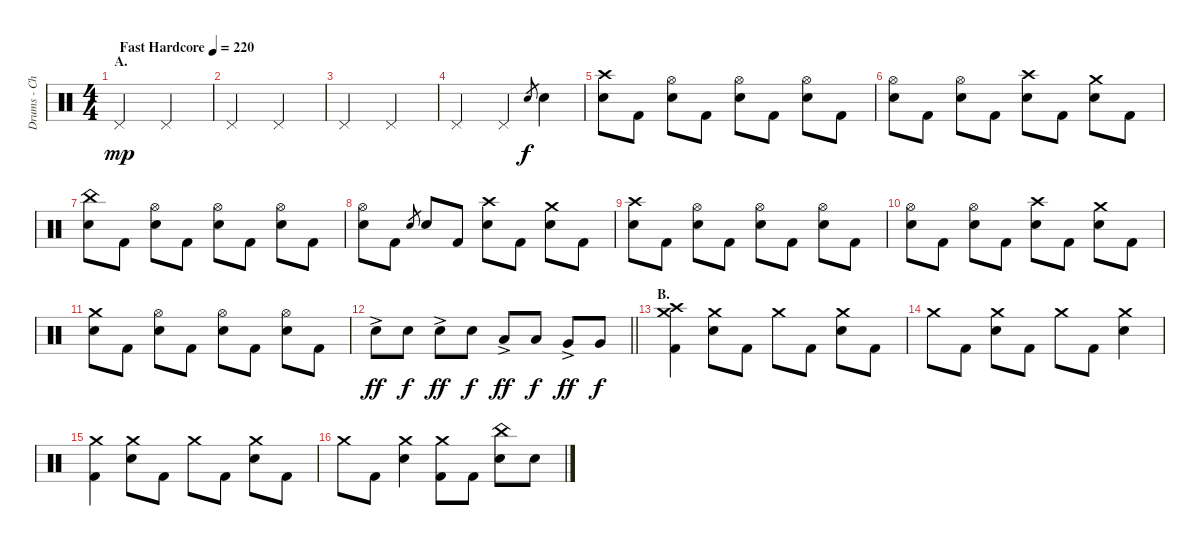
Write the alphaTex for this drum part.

\track ("Drums - Christopher Hornbrook" "Drums - Ch") {instrument percussion}
\staff {score}
\articulation defaults
\ts (4 4)
\section ("" "A.")
\tempo (220 "Fast Hardcore")
\clef neutral
\ks c "Pedal Hi-Hat (hit)".2{dy mp} "Pedal Hi-Hat (hit)".2
|
"Pedal Hi-Hat (hit)".2 "Pedal Hi-Hat (hit)".2 |
"Pedal Hi-Hat (hit)".2 "Pedal Hi-Hat (hit)".2 |
"Pedal Hi-Hat (hit)".2 "Pedal Hi-Hat (hit)".4 "Electric Snare (hit)".8{gr dy f} "Electric Snare (hit)".4 |
("Crash high (hit)" "Electric Snare (hit)").8 "Kick (hit) 2".8 ("Hi-Hat (open)" "Electric Snare (hit)").8 "Kick (hit) 2".8 ("Hi-Hat (open)" "Electric Snare (hit)").8 "Kick (hit) 2".8 ("Hi-Hat (open)" "Electric Snare (hit)").8 "Kick (hit) 2".8 |
("Hi-Hat (open)" "Electric Snare (hit)").8 "Kick (hit) 2".8 ("Hi-Hat (open)" "Electric Snare (hit)").8 "Kick (hit) 2".8 ("Crash high (hit)" "Electric Snare (hit)").8 "Kick (hit) 2".8 ("Crash medium (hit)" "Electric Snare (hit)").8 "Kick (hit) 2".8 |
("China (hit)" "Electric Snare (hit)").8 "Kick (hit) 2".8 ("Hi-Hat (open)" "Electric Snare (hit)").8 "Kick (hit) 2".8 ("Hi-Hat (open)" "Electric Snare (hit)").8 "Kick (hit) 2".8 ("Hi-Hat (open)" "Electric Snare (hit)").8 "Kick (hit) 2".8 |
("Hi-Hat (open)" "Electric Snare (hit)").8 "Kick (hit) 2".8 "Electric Snare (hit)".8{gr} "Electric Snare (hit)".8 "Kick (hit) 2".8 ("Crash high (hit)" "Electric Snare (hit)").8 "Kick (hit) 2".8 ("Crash medium (hit)" "Electric Snare (hit)").8 "Kick (hit) 2".8 |
("Crash high (hit)" "Electric Snare (hit)").8 "Kick (hit) 2".8 ("Hi-Hat (open)" "Electric Snare (hit)").8 "Kick (hit) 2".8 ("Hi-Hat (open)" "Electric Snare (hit)").8 "Kick (hit) 2".8 ("Hi-Hat (open)" "Electric Snare (hit)").8 "Kick (hit) 2".8 |
("Hi-Hat (open)" "Electric Snare (hit)").8 "Kick (hit) 2".8 ("Hi-Hat (open)" "Electric Snare (hit)").8 "Kick (hit) 2".8 ("Crash high (hit)" "Electric Snare (hit)").8 "Kick (hit) 2".8 ("Crash medium (hit)" "Electric Snare (hit)").8 "Kick (hit) 2".8 |
("Crash medium (hit)" "Electric Snare (hit)").8 "Kick (hit) 2".8 ("Hi-Hat (open)" "Electric Snare (hit)").8 "Kick (hit) 2".8 ("Hi-Hat (open)" "Electric Snare (hit)").8 "Kick (hit) 2".8 ("Hi-Hat (open)" "Electric Snare (hit)").8 "Kick (hit) 2".8 |
\barLineRight lightlight "Electric Snare (hit)"{ac}.8{dy ff} "Electric Snare (hit)".8{dy f} "Electric Snare (hit)"{ac}.8{dy ff} "Electric Snare (hit)".8{dy f} "Low Tom (hit)"{ac}.8{dy ff} "Low Tom (hit)".8{dy f} "Very Low Tom (hit)"{ac}.8{dy ff} "Very Low Tom (hit)".8{dy f}
|
\section ("" "B.")
("Crash medium (hit)" "Crash high (hit)" "Kick (hit) 2").4 ("Crash medium (hit)" "Electric Snare (hit)").8 "Kick (hit) 2".8 "Crash medium (hit)".8 "Kick (hit) 2".8 ("Crash medium (hit)" "Electric Snare (hit)").8 "Kick (hit) 2".8 |
"Crash medium (hit)".8 "Kick (hit) 2".8 ("Crash medium (hit)" "Electric Snare (hit)").8 "Kick (hit) 2".8 "Crash medium (hit)".8 "Kick (hit) 2".8 ("Crash medium (hit)" "Electric Snare (hit)").4 |
("Crash medium (hit)" "Kick (hit) 2").4 ("Crash medium (hit)" "Electric Snare (hit)").8 "Kick (hit) 2".8 "Crash medium (hit)".8 "Kick (hit) 2".8 ("Crash medium (hit)" "Electric Snare (hit)").8 "Kick (hit) 2".8 |
"Crash medium (hit)".8 "Kick (hit) 2".8 ("Crash medium (hit)" "Electric Snare (hit)").4 ("Crash medium (hit)" "Kick (hit) 2").8 "Kick (hit) 2".8 ("China (hit)" "Electric Snare (hit)").8 "Electric Snare (hit)".8
